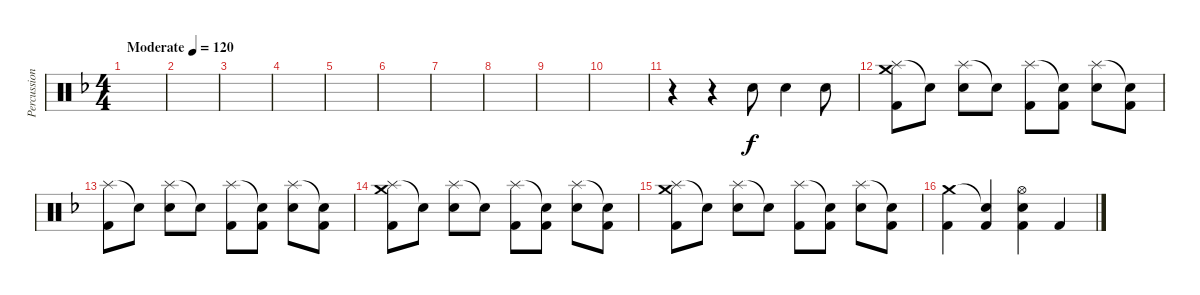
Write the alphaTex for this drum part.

\track ("Percussion" "Percussion") {instrument percussion}
\staff {score}
\articulation defaults
\ts (4 4)
\tempo (120 "Moderate")
\clef neutral
\ks f
|
|
|
|
|
|
|
|
|
|
r.4 r.4 "Electric Snare (hit)".8 "Electric Snare (hit)".4 "Electric Snare (hit)".8 |
("Splash (hit)" "Crash medium (hit)" "Kick (hit) 2").8 "Snare (hit)"{t}.8 ("Splash (hit)" "Electric Snare (hit)").8 "Snare (hit)"{t}.8 ("Splash (hit)" "Kick (hit) 2").8 ("Snare (hit)"{t} "Kick (hit) 2").8 ("Splash (hit)" "Electric Snare (hit)").8 ("Snare (hit)"{t} "Kick (hit) 2").8 |
("Splash (hit)" "Kick (hit) 2").8 "Snare (hit)"{t}.8 ("Splash (hit)" "Electric Snare (hit)").8 "Snare (hit)"{t}.8 ("Splash (hit)" "Kick (hit) 2").8 ("Snare (hit)"{t} "Kick (hit) 2").8 ("Splash (hit)" "Electric Snare (hit)").8 ("Snare (hit)"{t} "Kick (hit) 2").8 |
("Splash (hit)" "Crash medium (hit)" "Kick (hit) 2").8 "Snare (hit)"{t}.8 ("Splash (hit)" "Electric Snare (hit)").8 "Snare (hit)"{t}.8 ("Splash (hit)" "Kick (hit) 2").8 ("Snare (hit)"{t} "Kick (hit) 2").8 ("Splash (hit)" "Electric Snare (hit)").8 ("Snare (hit)"{t} "Kick (hit) 2").8 |
("Splash (hit)" "Crash medium (hit)" "Kick (hit) 2").8 "Snare (hit)"{t}.8 ("Splash (hit)" "Electric Snare (hit)").8 "Snare (hit)"{t}.8 ("Splash (hit)" "Kick (hit) 2").8 ("Snare (hit)"{t} "Kick (hit) 2").8 ("Splash (hit)" "Electric Snare (hit)").8 ("Snare (hit)"{t} "Kick (hit) 2").8 |
("Crash medium (hit)" "Kick (hit) 2").4 ("Snare (hit)"{t} "Kick (hit) 2").4 ("Hi-Hat (open)" "Electric Snare (hit)" "Kick (hit) 2").4 "Kick (hit) 2".4
